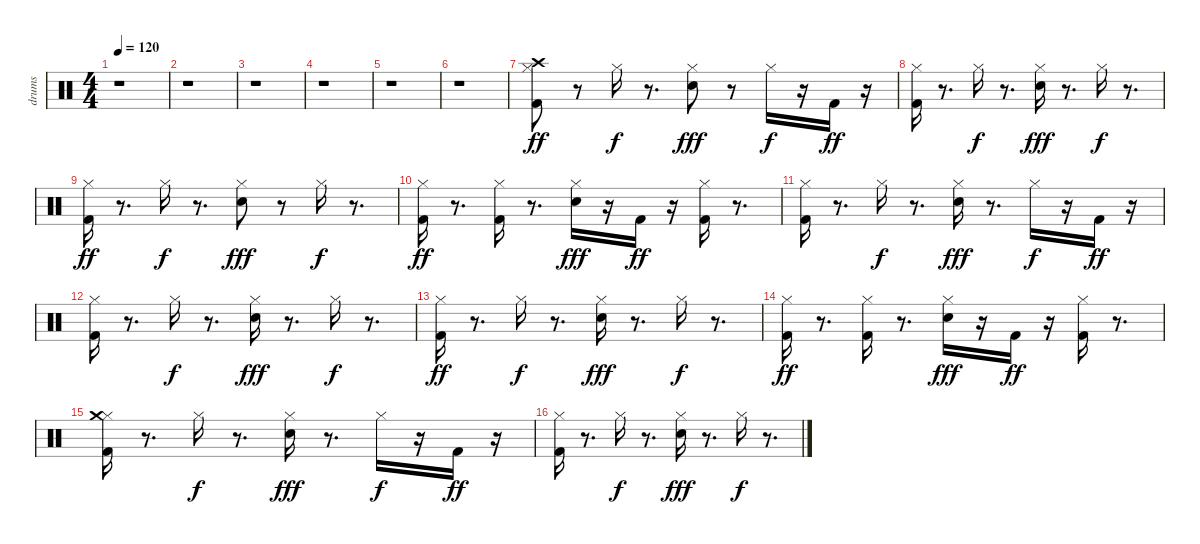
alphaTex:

\track ("drums" "drums") {instrument percussion}
\staff {score}
\articulation defaults
\ts (4 4)
\tempo 120
\clef neutral
\ks c
r.1{dy ff} |
r.1 |
r.1 |
r.1 |
r.1 |
r.1 |
("Kick (hit) 2" "Hi-Hat (closed)" "Crash high (hit)").8 r.8 "Hi-Hat (closed)".16{dy f} r.8{d} ("Snare (hit) 2" "Hi-Hat (closed)").8{dy fff} r.8 "Hi-Hat (closed)".16{dy f} r.16 "Kick (hit) 2".16{dy ff} r.16 |
("Kick (hit) 2" "Hi-Hat (closed)").16 r.8{d} "Hi-Hat (closed)".16{dy f} r.8{d} ("Snare (hit) 2" "Hi-Hat (closed)").16{dy fff} r.8{d} "Hi-Hat (closed)".16{dy f} r.8{d} |
("Kick (hit) 2" "Hi-Hat (closed)").16{dy ff} r.8{d} "Hi-Hat (closed)".16{dy f} r.8{d} ("Snare (hit) 2" "Hi-Hat (closed)").8{dy fff} r.8 "Hi-Hat (closed)".16{dy f} r.8{d} |
("Kick (hit) 2" "Hi-Hat (closed)").16{dy ff} r.8{d} ("Kick (hit) 2" "Hi-Hat (closed)").16 r.8{d} ("Snare (hit) 2" "Hi-Hat (closed)").16{dy fff} r.16 "Kick (hit) 2".16{dy ff} r.16 ("Kick (hit) 2" "Hi-Hat (closed)").16 r.8{d} |
("Kick (hit) 2" "Hi-Hat (closed)").16 r.8{d} "Hi-Hat (closed)".16{dy f} r.8{d} ("Snare (hit) 2" "Hi-Hat (closed)").16{dy fff} r.8{d} "Hi-Hat (closed)".16{dy f} r.16 "Kick (hit) 2".16{dy ff} r.16 |
("Kick (hit) 2" "Hi-Hat (closed)").16 r.8{d} "Hi-Hat (closed)".16{dy f} r.8{d} ("Snare (hit) 2" "Hi-Hat (closed)").16{dy fff} r.8{d} "Hi-Hat (closed)".16{dy f} r.8{d} |
("Kick (hit) 2" "Hi-Hat (closed)").16{dy ff} r.8{d} "Hi-Hat (closed)".16{dy f} r.8{d} ("Snare (hit) 2" "Hi-Hat (closed)").16{dy fff} r.8{d} "Hi-Hat (closed)".16{dy f} r.8{d} |
("Kick (hit) 2" "Hi-Hat (closed)").16{dy ff} r.8{d} ("Kick (hit) 2" "Hi-Hat (closed)").16 r.8{d} ("Snare (hit) 2" "Hi-Hat (closed)").16{dy fff} r.16 "Kick (hit) 2".16{dy ff} r.16 ("Kick (hit) 2" "Hi-Hat (closed)").16 r.8{d} |
("Kick (hit) 2" "Hi-Hat (closed)" "Crash medium (hit)").16 r.8{d} "Hi-Hat (closed)".16{dy f} r.8{d} ("Snare (hit) 2" "Hi-Hat (closed)").16{dy fff} r.8{d} "Hi-Hat (closed)".16{dy f} r.16 "Kick (hit) 2".16{dy ff} r.16 |
("Kick (hit) 2" "Hi-Hat (closed)").16 r.8{d} "Hi-Hat (closed)".16{dy f} r.8{d} ("Snare (hit) 2" "Hi-Hat (closed)").16{dy fff} r.8{d} "Hi-Hat (closed)".16{dy f} r.8{d}
